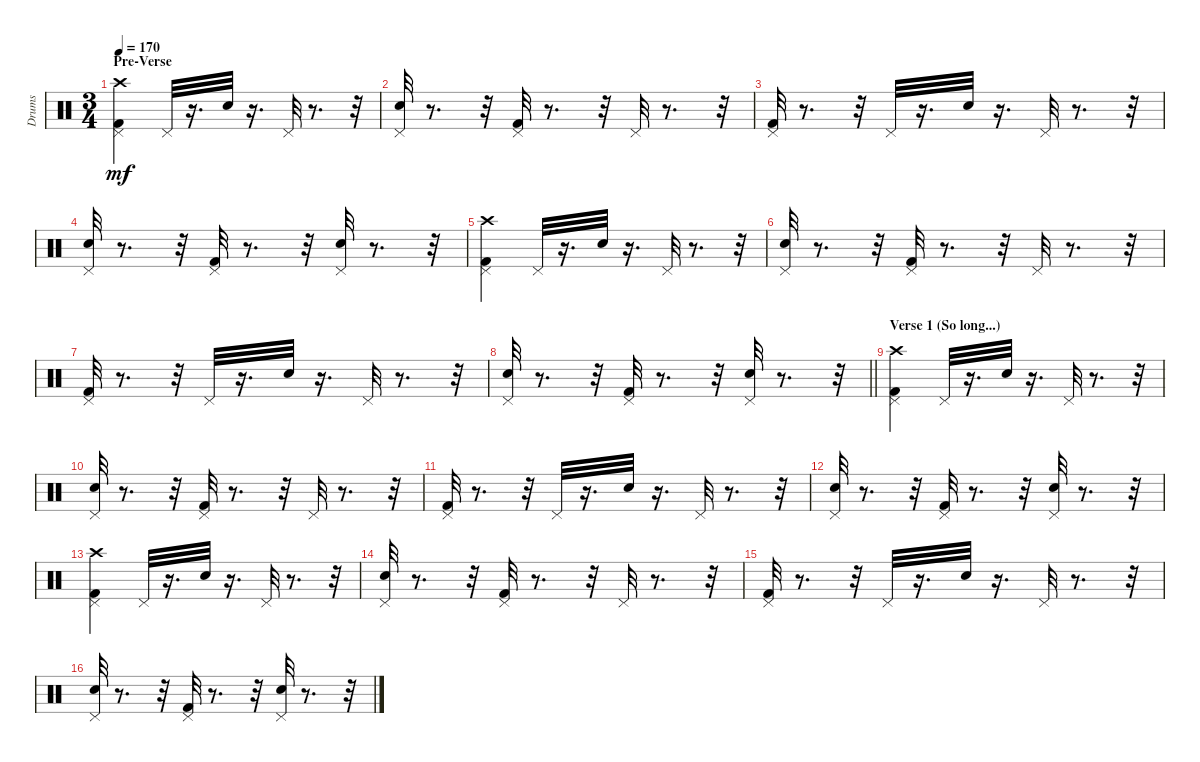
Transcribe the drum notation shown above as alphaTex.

\track ("Drums" "Drums") {instrument percussion}
\staff {score}
\articulation defaults
\ts (3 4)
\section ("" "Pre-Verse")
\tempo 170
\clef neutral
\ks c
("Kick (hit) 2" "Pedal Hi-Hat (hit)" "Crash high (hit)").4{dy mf} "Pedal Hi-Hat (hit)".32 r.16{d} "Snare (hit) 2".32 r.16{d} "Pedal Hi-Hat (hit)".32 r.8{d} r.32 |
("Snare (hit) 2" "Pedal Hi-Hat (hit)").32 r.8{d} r.32 ("Kick (hit) 2" "Pedal Hi-Hat (hit)").32 r.8{d} r.32 "Pedal Hi-Hat (hit)".32 r.8{d} r.32 |
("Kick (hit) 2" "Pedal Hi-Hat (hit)").32 r.8{d} r.32 "Pedal Hi-Hat (hit)".32 r.16{d} "Snare (hit) 2".32 r.16{d} "Pedal Hi-Hat (hit)".32 r.8{d} r.32 |
("Snare (hit) 2" "Pedal Hi-Hat (hit)").32 r.8{d} r.32 ("Kick (hit) 2" "Pedal Hi-Hat (hit)").32 r.8{d} r.32 ("Snare (hit) 2" "Pedal Hi-Hat (hit)").32 r.8{d} r.32 |
("Kick (hit) 2" "Pedal Hi-Hat (hit)" "Crash high (hit)").4 "Pedal Hi-Hat (hit)".32 r.16{d} "Snare (hit) 2".32 r.16{d} "Pedal Hi-Hat (hit)".32 r.8{d} r.32 |
("Snare (hit) 2" "Pedal Hi-Hat (hit)").32 r.8{d} r.32 ("Kick (hit) 2" "Pedal Hi-Hat (hit)").32 r.8{d} r.32 "Pedal Hi-Hat (hit)".32 r.8{d} r.32 |
("Kick (hit) 2" "Pedal Hi-Hat (hit)").32 r.8{d} r.32 "Pedal Hi-Hat (hit)".32 r.16{d} "Snare (hit) 2".32 r.16{d} "Pedal Hi-Hat (hit)".32 r.8{d} r.32 |
\barLineRight lightlight
("Snare (hit) 2" "Pedal Hi-Hat (hit)").32 r.8{d} r.32 ("Kick (hit) 2" "Pedal Hi-Hat (hit)").32 r.8{d} r.32 ("Snare (hit) 2" "Pedal Hi-Hat (hit)").32 r.8{d} r.32 |
\section ("" "Verse 1 (So long...)")
("Kick (hit) 2" "Pedal Hi-Hat (hit)" "Crash high (hit)").4 "Pedal Hi-Hat (hit)".32 r.16{d} "Snare (hit) 2".32 r.16{d} "Pedal Hi-Hat (hit)".32 r.8{d} r.32 |
("Snare (hit) 2" "Pedal Hi-Hat (hit)").32 r.8{d} r.32 ("Kick (hit) 2" "Pedal Hi-Hat (hit)").32 r.8{d} r.32 "Pedal Hi-Hat (hit)".32 r.8{d} r.32 |
("Kick (hit) 2" "Pedal Hi-Hat (hit)").32 r.8{d} r.32 "Pedal Hi-Hat (hit)".32 r.16{d} "Snare (hit) 2".32 r.16{d} "Pedal Hi-Hat (hit)".32 r.8{d} r.32 |
("Snare (hit) 2" "Pedal Hi-Hat (hit)").32 r.8{d} r.32 ("Kick (hit) 2" "Pedal Hi-Hat (hit)").32 r.8{d} r.32 ("Snare (hit) 2" "Pedal Hi-Hat (hit)").32 r.8{d} r.32 |
("Kick (hit) 2" "Pedal Hi-Hat (hit)" "Crash high (hit)").4 "Pedal Hi-Hat (hit)".32 r.16{d} "Snare (hit) 2".32 r.16{d} "Pedal Hi-Hat (hit)".32 r.8{d} r.32 |
("Snare (hit) 2" "Pedal Hi-Hat (hit)").32 r.8{d} r.32 ("Kick (hit) 2" "Pedal Hi-Hat (hit)").32 r.8{d} r.32 "Pedal Hi-Hat (hit)".32 r.8{d} r.32 |
("Kick (hit) 2" "Pedal Hi-Hat (hit)").32 r.8{d} r.32 "Pedal Hi-Hat (hit)".32 r.16{d} "Snare (hit) 2".32 r.16{d} "Pedal Hi-Hat (hit)".32 r.8{d} r.32 |
("Snare (hit) 2" "Pedal Hi-Hat (hit)").32 r.8{d} r.32 ("Kick (hit) 2" "Pedal Hi-Hat (hit)").32 r.8{d} r.32 ("Snare (hit) 2" "Pedal Hi-Hat (hit)").32 r.8{d} r.32
